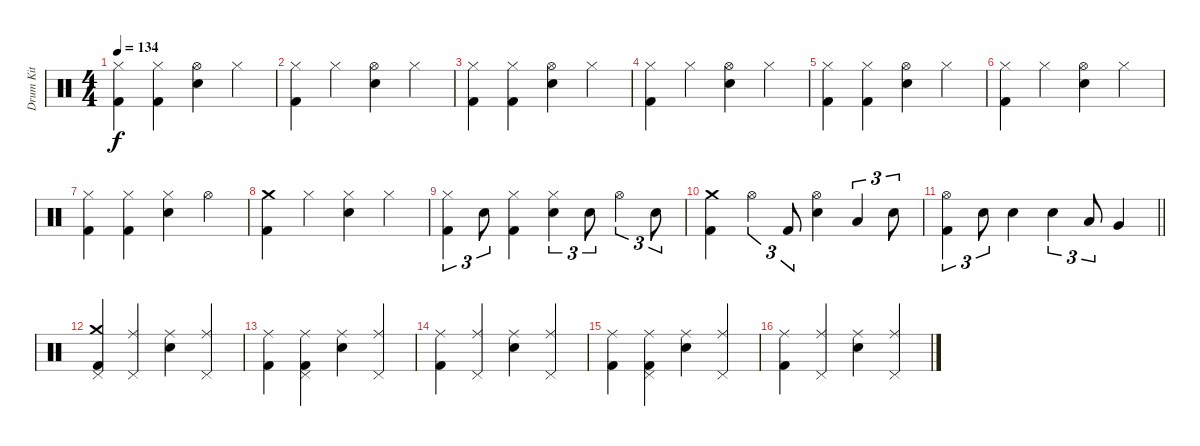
\track ("Drum Kit" "Drum Kit") {instrument percussion}
\staff {score}
\articulation defaults
\ts (4 4)
\tempo 134
\clef neutral
\ks c
("Hi-Hat (closed)" "Kick (hit) 2").4{dy f} ("Hi-Hat (closed)" "Kick (hit) 2").4 ("Hi-Hat (open)" "Snare (hit) 2").4 "Hi-Hat (closed)".4 |
("Hi-Hat (closed)" "Kick (hit) 2").4 "Hi-Hat (closed)".4 ("Hi-Hat (open)" "Snare (hit) 2").4 "Hi-Hat (closed)".4 |
("Hi-Hat (closed)" "Kick (hit) 2").4 ("Hi-Hat (closed)" "Kick (hit) 2").4 ("Hi-Hat (open)" "Snare (hit) 2").4 "Hi-Hat (closed)".4 |
("Hi-Hat (closed)" "Kick (hit) 2").4 "Hi-Hat (closed)".4 ("Hi-Hat (open)" "Snare (hit) 2").4 "Hi-Hat (closed)".4 |
("Hi-Hat (closed)" "Kick (hit) 2").4 ("Hi-Hat (closed)" "Kick (hit) 2").4 ("Hi-Hat (open)" "Snare (hit) 2").4 "Hi-Hat (closed)".4 |
("Hi-Hat (closed)" "Kick (hit) 2").4 "Hi-Hat (closed)".4 ("Hi-Hat (open)" "Snare (hit) 2").4 "Hi-Hat (closed)".4 |
("Hi-Hat (closed)" "Kick (hit) 2").4 ("Hi-Hat (closed)" "Kick (hit) 2").4 ("Hi-Hat (closed)" "Snare (hit) 2").4 "Hi-Hat (open)".4 |
("Crash medium (hit)" "Kick (hit) 2").4 "Hi-Hat (closed)".4 ("Hi-Hat (closed)" "Snare (hit) 2").4 "Hi-Hat (closed)".4 |
("Hi-Hat (closed)" "Kick (hit) 2").4{tu (3 2)} "Snare (hit) 2".8{tu (3 2)} ("Hi-Hat (closed)" "Kick (hit) 2").4 ("Hi-Hat (closed)" "Snare (hit) 2").4{tu (3 2)} "Snare (hit) 2".8{tu (3 2)} "Hi-Hat (open)".4{tu (3 2)} "Snare (hit) 2".8{tu (3 2)} |
("Crash medium (hit)" "Kick (hit) 2").4 "Hi-Hat (open)".4{tu (3 2)} "Kick (hit) 2".8{tu (3 2)} ("Hi-Hat (open)" "Snare (hit) 2").4 "Low Tom (hit)".4{tu (3 2)} "Snare (hit) 2".8{tu (3 2)} |
\barLineRight lightlight
("Hi-Hat (open)" "Kick (hit) 2").4{tu (3 2)} "Snare (hit) 2".8{tu (3 2)} "Snare (hit) 2".4 "Snare (hit) 2".4{tu (3 2)} "Low Tom (hit)".8{tu (3 2)} "Very Low Tom (hit)".4 |
("Crash medium (hit)" "Pedal Hi-Hat (hit)" "Kick (hit) 2").4 ("Ride (middle)" "Pedal Hi-Hat (hit)").4 ("Ride (middle)" "Snare (hit) 2").4 ("Ride (middle)" "Pedal Hi-Hat (hit)").4 |
("Ride (middle)" "Kick (hit) 2").4 ("Ride (middle)" "Pedal Hi-Hat (hit)" "Kick (hit) 2").4 ("Ride (middle)" "Snare (hit) 2").4 ("Ride (middle)" "Pedal Hi-Hat (hit)").4 |
("Ride (middle)" "Kick (hit) 2").4 ("Ride (middle)" "Pedal Hi-Hat (hit)").4 ("Ride (middle)" "Snare (hit) 2").4 ("Ride (middle)" "Pedal Hi-Hat (hit)").4 |
("Ride (middle)" "Kick (hit) 2").4 ("Ride (middle)" "Pedal Hi-Hat (hit)" "Kick (hit) 2").4 ("Ride (middle)" "Snare (hit) 2").4 ("Ride (middle)" "Pedal Hi-Hat (hit)").4 |
("Ride (middle)" "Kick (hit) 2").4 ("Ride (middle)" "Pedal Hi-Hat (hit)").4 ("Ride (middle)" "Snare (hit) 2").4 ("Ride (middle)" "Pedal Hi-Hat (hit)").4
